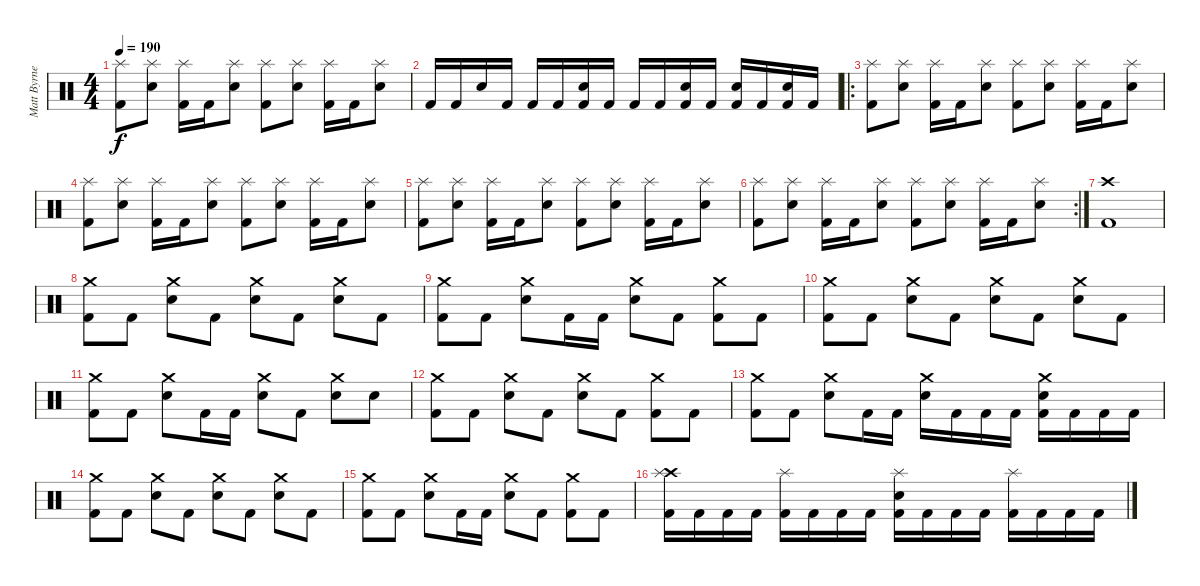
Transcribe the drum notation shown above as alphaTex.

\track ("Matt Byrne (Drums)" "Matt Byrne") {instrument percussion}
\staff {score}
\articulation defaults
\ts (4 4)
\tempo 190
\clef neutral
\ks c
("Splash (hit)" "Kick (hit) 2").8{dy f} ("Splash (hit)" "Snare (hit) 2").8 ("Splash (hit)" "Kick (hit) 2").16 "Kick (hit) 2".16 ("Splash (hit)" "Snare (hit) 2").8 ("Splash (hit)" "Kick (hit) 2").8 ("Splash (hit)" "Snare (hit) 2").8 ("Splash (hit)" "Kick (hit) 2").16 "Kick (hit) 2".16 ("Splash (hit)" "Snare (hit) 2").8 |
"Kick (hit) 2".16 "Kick (hit) 2".16 "Snare (hit) 2".16 "Kick (hit) 2".16 "Kick (hit) 2".16 "Kick (hit) 2".16 ("Snare (hit) 2" "Kick (hit) 2").16 "Kick (hit) 2".16 "Kick (hit) 2".16 "Kick (hit) 2".16 ("Snare (hit) 2" "Kick (hit) 2").16 "Kick (hit) 2".16 ("Snare (hit) 2" "Kick (hit) 2").16 "Kick (hit) 2".16 ("Snare (hit) 2" "Kick (hit) 2").16 "Kick (hit) 2".16 |
\ro
("Splash (hit)" "Kick (hit) 2").8 ("Splash (hit)" "Snare (hit) 2").8 ("Splash (hit)" "Kick (hit) 2").16 "Kick (hit) 2".16 ("Splash (hit)" "Snare (hit) 2").8 ("Splash (hit)" "Kick (hit) 2").8 ("Splash (hit)" "Snare (hit) 2").8 ("Splash (hit)" "Kick (hit) 2").16 "Kick (hit) 2".16 ("Splash (hit)" "Snare (hit) 2").8 |
("Splash (hit)" "Kick (hit) 2").8 ("Splash (hit)" "Snare (hit) 2").8 ("Splash (hit)" "Kick (hit) 2").16 "Kick (hit) 2".16 ("Splash (hit)" "Snare (hit) 2").8 ("Splash (hit)" "Kick (hit) 2").8 ("Splash (hit)" "Snare (hit) 2").8 ("Splash (hit)" "Kick (hit) 2").16 "Kick (hit) 2".16 ("Splash (hit)" "Snare (hit) 2").8 |
("Splash (hit)" "Kick (hit) 2").8 ("Splash (hit)" "Snare (hit) 2").8 ("Splash (hit)" "Kick (hit) 2").16 "Kick (hit) 2".16 ("Splash (hit)" "Snare (hit) 2").8 ("Splash (hit)" "Kick (hit) 2").8 ("Splash (hit)" "Snare (hit) 2").8 ("Splash (hit)" "Kick (hit) 2").16 "Kick (hit) 2".16 ("Splash (hit)" "Snare (hit) 2").8 |
\rc 2
("Splash (hit)" "Kick (hit) 2").8 ("Splash (hit)" "Snare (hit) 2").8 ("Splash (hit)" "Kick (hit) 2").16 "Kick (hit) 2".16 ("Splash (hit)" "Snare (hit) 2").8 ("Splash (hit)" "Kick (hit) 2").8 ("Splash (hit)" "Snare (hit) 2").8 ("Splash (hit)" "Kick (hit) 2").16 "Kick (hit) 2".16 ("Splash (hit)" "Snare (hit) 2").8 |
("Crash high (hit)" "Kick (hit) 2").1 |
("Crash medium (hit)" "Kick (hit) 2").8 "Kick (hit) 2".8 ("Crash medium (hit)" "Snare (hit)"{x}).8 "Kick (hit) 2".8 ("Crash medium (hit)" "Snare (hit) 2").8 "Kick (hit) 2".8 ("Crash medium (hit)" "Snare (hit)"{x}).8 "Kick (hit) 2".8 |
("Crash medium (hit)" "Kick (hit) 2").8 "Kick (hit) 2".8 ("Crash medium (hit)" "Snare (hit)"{x}).8 "Kick (hit) 2".16 "Kick (hit) 2".16 ("Crash medium (hit)" "Snare (hit) 2").8 "Kick (hit) 2".8 ("Crash medium (hit)" "Kick (hit) 2").8 "Kick (hit) 2".8 |
("Crash medium (hit)" "Kick (hit) 2").8 "Kick (hit) 2".8 ("Crash medium (hit)" "Snare (hit)"{x}).8 "Kick (hit) 2".8 ("Crash medium (hit)" "Snare (hit) 2").8 "Kick (hit) 2".8 ("Crash medium (hit)" "Snare (hit)"{x}).8 "Kick (hit) 2".8 |
("Crash medium (hit)" "Kick (hit) 2").8 "Kick (hit) 2".8 ("Crash medium (hit)" "Snare (hit)"{x}).8 "Kick (hit) 2".16 "Kick (hit) 2".16 ("Crash medium (hit)" "Snare (hit) 2").8 "Kick (hit) 2".8 ("Crash medium (hit)" "Snare (hit) 2").8 "Snare (hit) 2".8 |
("Crash medium (hit)" "Kick (hit) 2").8 "Kick (hit) 2".8 ("Crash medium (hit)" "Snare (hit)"{x}).8 "Kick (hit) 2".8 ("Crash medium (hit)" "Snare (hit) 2").8 "Kick (hit) 2".8 ("Crash medium (hit)" "Kick (hit) 2"{x}).8 "Kick (hit) 2".8 |
("Crash medium (hit)" "Kick (hit) 2").8 "Kick (hit) 2".8 ("Crash medium (hit)" "Snare (hit)"{x}).8 "Kick (hit) 2".16 "Kick (hit) 2".16 ("Crash medium (hit)" "Snare (hit) 2").16 "Kick (hit) 2".16 "Kick (hit) 2".16 "Kick (hit) 2".16 ("Crash medium (hit)" "Snare (hit) 2" "Kick (hit) 2").16 "Kick (hit) 2".16 "Kick (hit) 2".16 "Kick (hit) 2".16 |
("Crash medium (hit)" "Kick (hit) 2").8 "Kick (hit) 2".8 ("Crash medium (hit)" "Snare (hit)"{x}).8 "Kick (hit) 2".8 ("Crash medium (hit)" "Snare (hit) 2").8 "Kick (hit) 2".8 ("Crash medium (hit)" "Snare (hit)"{x}).8 "Kick (hit) 2".8 |
("Crash medium (hit)" "Kick (hit) 2").8 "Kick (hit) 2".8 ("Crash medium (hit)" "Snare (hit)"{x}).8 "Kick (hit) 2".16 "Kick (hit) 2".16 ("Crash medium (hit)" "Snare (hit) 2").8 "Kick (hit) 2".8 ("Crash medium (hit)" "Kick (hit) 2").8 "Kick (hit) 2".8 |
("Crash high (hit)" "Splash (hit)" "Kick (hit) 2").16 "Kick (hit) 2".16 "Kick (hit) 2".16 "Kick (hit) 2".16 ("Splash (hit)" "Kick (hit) 2").16 "Kick (hit) 2".16 "Kick (hit) 2".16 "Kick (hit) 2".16 ("Splash (hit)" "Snare (hit) 2" "Kick (hit) 2").16 "Kick (hit) 2".16 "Kick (hit) 2".16 "Kick (hit) 2".16 ("Splash (hit)" "Kick (hit) 2").16 "Kick (hit) 2".16 "Kick (hit) 2".16 "Kick (hit) 2".16
